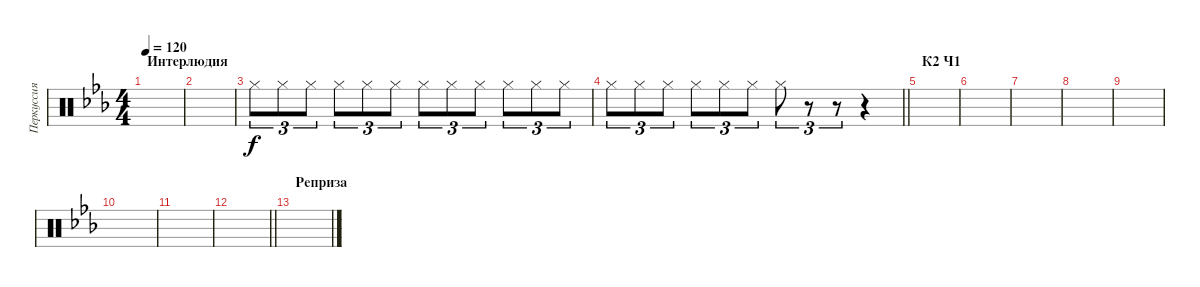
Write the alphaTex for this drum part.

\track ("Перкуссия" "Перкуссия") {instrument percussion}
\staff {score}
\articulation defaults
\ts (4 4)
\section ("" "Интерлюдия")
\tempo 120
\clef neutral
\ks cminor
|
|
"Hi-Hat (closed)".8{tu (3 2)} "Hi-Hat (closed)".8{tu (3 2)} "Hi-Hat (closed)".8{tu (3 2)} "Hi-Hat (closed)".8{tu (3 2)} "Hi-Hat (closed)".8{tu (3 2)} "Hi-Hat (closed)".8{tu (3 2)} "Hi-Hat (closed)".8{tu (3 2)} "Hi-Hat (closed)".8{tu (3 2)} "Hi-Hat (closed)".8{tu (3 2)} "Hi-Hat (closed)".8{tu (3 2)} "Hi-Hat (closed)".8{tu (3 2)} "Hi-Hat (closed)".8{tu (3 2)} |
\barLineRight lightlight "Hi-Hat (closed)".8{tu (3 2)} "Hi-Hat (closed)".8{tu (3 2)} "Hi-Hat (closed)".8{tu (3 2)} "Hi-Hat (closed)".8{tu (3 2)} "Hi-Hat (closed)".8{tu (3 2)} "Hi-Hat (closed)".8{tu (3 2)} "Hi-Hat (closed)".8{tu (3 2)}
r.8{tu (3 2)} r.8{tu (3 2)} r.4 |
\section ("" "К2 Ч1")
|
|
|
|
|
|
|
\barLineRight lightlight
|
\section ("" "Реприза")
